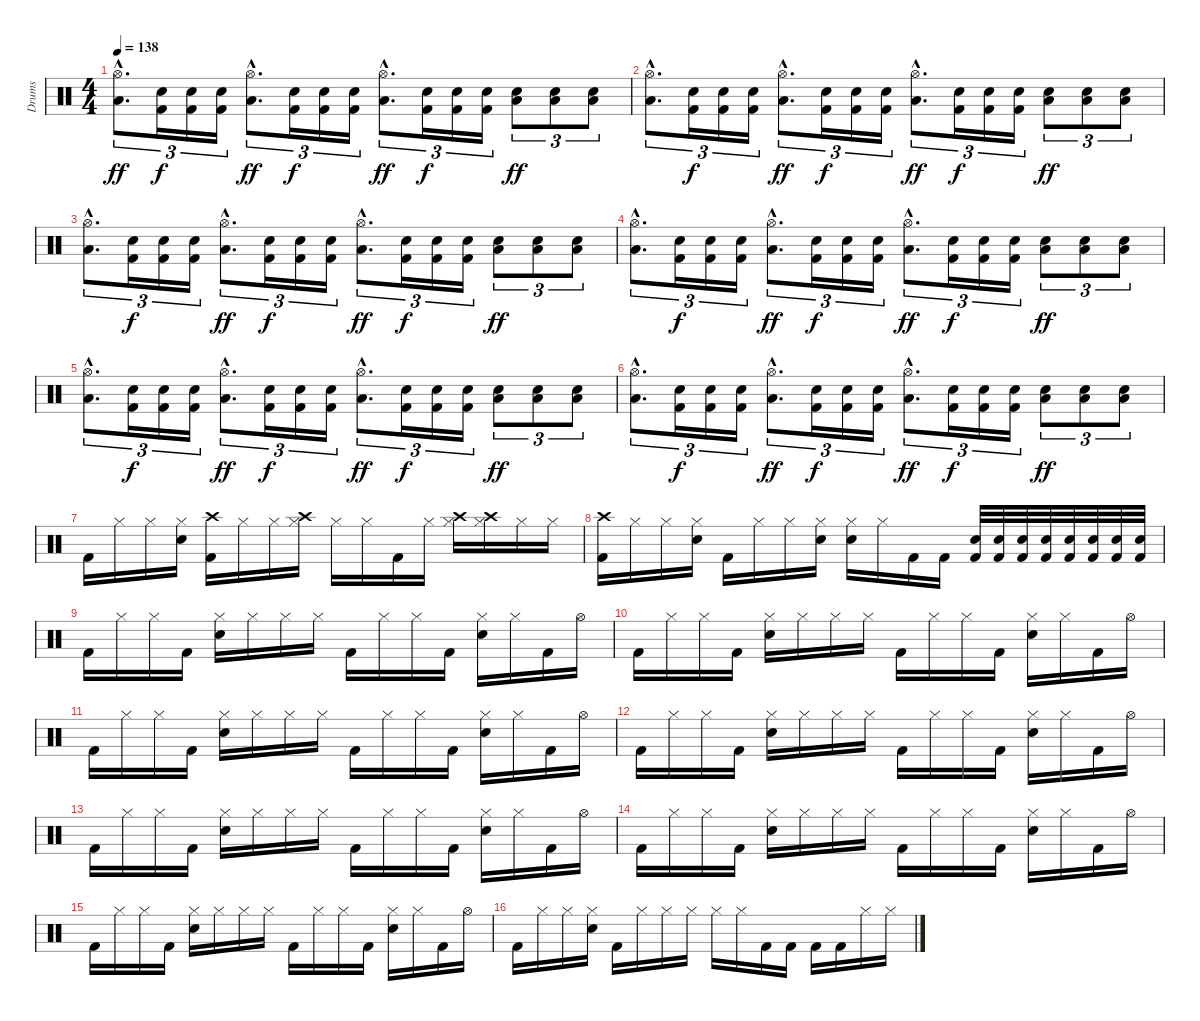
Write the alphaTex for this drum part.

\track ("Drums" "Drums") {instrument percussion}
\staff {score}
\articulation defaults
\ts (4 4)
\tempo 138
\clef neutral
\ks c
("Hi-Hat (open)"{hac} "Low Tom (hit)"{hac}).8{d tu (3 2) dy ff} ("Electric Snare (hit)" "Kick (hit) 2").16{tu (3 2) dy f} ("Electric Snare (hit)" "Kick (hit) 2").16{tu (3 2)} ("Electric Snare (hit)" "Kick (hit) 2").16{tu (3 2)} ("Hi-Hat (open)"{hac} "Low Tom (hit)"{hac}).8{d tu (3 2) dy ff} ("Electric Snare (hit)" "Kick (hit) 2").16{tu (3 2) dy f} ("Electric Snare (hit)" "Kick (hit) 2").16{tu (3 2)} ("Electric Snare (hit)" "Kick (hit) 2").16{tu (3 2)} ("Hi-Hat (open)"{hac} "Low Tom (hit)"{hac}).8{d tu (3 2) dy ff} ("Kick (hit) 2" "Electric Snare (hit)").16{tu (3 2) dy f} ("Kick (hit) 2" "Electric Snare (hit)").16{tu (3 2)} ("Kick (hit) 2" "Electric Snare (hit)").16{tu (3 2)} ("Electric Snare (hit)" "Low Tom (hit)").8{tu (3 2) dy ff} ("Electric Snare (hit)" "Low Tom (hit)").8{tu (3 2)} ("Electric Snare (hit)" "Low Tom (hit)").8{tu (3 2)} |
("Hi-Hat (open)"{hac} "Low Tom (hit)"{hac}).8{d tu (3 2)} ("Electric Snare (hit)" "Kick (hit) 2").16{tu (3 2) dy f} ("Electric Snare (hit)" "Kick (hit) 2").16{tu (3 2)} ("Electric Snare (hit)" "Kick (hit) 2").16{tu (3 2)} ("Hi-Hat (open)"{hac} "Low Tom (hit)"{hac}).8{d tu (3 2) dy ff} ("Electric Snare (hit)" "Kick (hit) 2").16{tu (3 2) dy f} ("Electric Snare (hit)" "Kick (hit) 2").16{tu (3 2)} ("Electric Snare (hit)" "Kick (hit) 2").16{tu (3 2)} ("Hi-Hat (open)"{hac} "Low Tom (hit)"{hac}).8{d tu (3 2) dy ff} ("Kick (hit) 2" "Electric Snare (hit)").16{tu (3 2) dy f} ("Kick (hit) 2" "Electric Snare (hit)").16{tu (3 2)} ("Kick (hit) 2" "Electric Snare (hit)").16{tu (3 2)} ("Electric Snare (hit)" "Low Tom (hit)").8{tu (3 2) dy ff} ("Electric Snare (hit)" "Low Tom (hit)").8{tu (3 2)} ("Electric Snare (hit)" "Low Tom (hit)").8{tu (3 2)} |
("Hi-Hat (open)"{hac} "Low Tom (hit)"{hac}).8{d tu (3 2)} ("Electric Snare (hit)" "Kick (hit) 2").16{tu (3 2) dy f} ("Electric Snare (hit)" "Kick (hit) 2").16{tu (3 2)} ("Electric Snare (hit)" "Kick (hit) 2").16{tu (3 2)} ("Hi-Hat (open)"{hac} "Low Tom (hit)"{hac}).8{d tu (3 2) dy ff} ("Electric Snare (hit)" "Kick (hit) 2").16{tu (3 2) dy f} ("Electric Snare (hit)" "Kick (hit) 2").16{tu (3 2)} ("Electric Snare (hit)" "Kick (hit) 2").16{tu (3 2)} ("Hi-Hat (open)"{hac} "Low Tom (hit)"{hac}).8{d tu (3 2) dy ff} ("Kick (hit) 2" "Electric Snare (hit)").16{tu (3 2) dy f} ("Kick (hit) 2" "Electric Snare (hit)").16{tu (3 2)} ("Kick (hit) 2" "Electric Snare (hit)").16{tu (3 2)} ("Electric Snare (hit)" "Low Tom (hit)").8{tu (3 2) dy ff} ("Electric Snare (hit)" "Low Tom (hit)").8{tu (3 2)} ("Electric Snare (hit)" "Low Tom (hit)").8{tu (3 2)} |
("Hi-Hat (open)"{hac} "Low Tom (hit)"{hac}).8{d tu (3 2)} ("Electric Snare (hit)" "Kick (hit) 2").16{tu (3 2) dy f} ("Electric Snare (hit)" "Kick (hit) 2").16{tu (3 2)} ("Electric Snare (hit)" "Kick (hit) 2").16{tu (3 2)} ("Hi-Hat (open)"{hac} "Low Tom (hit)"{hac}).8{d tu (3 2) dy ff} ("Electric Snare (hit)" "Kick (hit) 2").16{tu (3 2) dy f} ("Electric Snare (hit)" "Kick (hit) 2").16{tu (3 2)} ("Electric Snare (hit)" "Kick (hit) 2").16{tu (3 2)} ("Hi-Hat (open)"{hac} "Low Tom (hit)"{hac}).8{d tu (3 2) dy ff} ("Kick (hit) 2" "Electric Snare (hit)").16{tu (3 2) dy f} ("Kick (hit) 2" "Electric Snare (hit)").16{tu (3 2)} ("Kick (hit) 2" "Electric Snare (hit)").16{tu (3 2)} ("Electric Snare (hit)" "Low Tom (hit)").8{tu (3 2) dy ff} ("Electric Snare (hit)" "Low Tom (hit)").8{tu (3 2)} ("Electric Snare (hit)" "Low Tom (hit)").8{tu (3 2)} |
("Hi-Hat (open)"{hac} "Low Tom (hit)"{hac}).8{d tu (3 2)} ("Electric Snare (hit)" "Kick (hit) 2").16{tu (3 2) dy f} ("Electric Snare (hit)" "Kick (hit) 2").16{tu (3 2)} ("Electric Snare (hit)" "Kick (hit) 2").16{tu (3 2)} ("Hi-Hat (open)"{hac} "Low Tom (hit)"{hac}).8{d tu (3 2) dy ff} ("Electric Snare (hit)" "Kick (hit) 2").16{tu (3 2) dy f} ("Electric Snare (hit)" "Kick (hit) 2").16{tu (3 2)} ("Electric Snare (hit)" "Kick (hit) 2").16{tu (3 2)} ("Hi-Hat (open)"{hac} "Low Tom (hit)"{hac}).8{d tu (3 2) dy ff} ("Kick (hit) 2" "Electric Snare (hit)").16{tu (3 2) dy f} ("Kick (hit) 2" "Electric Snare (hit)").16{tu (3 2)} ("Kick (hit) 2" "Electric Snare (hit)").16{tu (3 2)} ("Electric Snare (hit)" "Low Tom (hit)").8{tu (3 2) dy ff} ("Electric Snare (hit)" "Low Tom (hit)").8{tu (3 2)} ("Electric Snare (hit)" "Low Tom (hit)").8{tu (3 2)} |
("Hi-Hat (open)"{hac} "Low Tom (hit)"{hac}).8{d tu (3 2)} ("Electric Snare (hit)" "Kick (hit) 2").16{tu (3 2) dy f} ("Electric Snare (hit)" "Kick (hit) 2").16{tu (3 2)} ("Electric Snare (hit)" "Kick (hit) 2").16{tu (3 2)} ("Hi-Hat (open)"{hac} "Low Tom (hit)"{hac}).8{d tu (3 2) dy ff} ("Electric Snare (hit)" "Kick (hit) 2").16{tu (3 2) dy f} ("Electric Snare (hit)" "Kick (hit) 2").16{tu (3 2)} ("Electric Snare (hit)" "Kick (hit) 2").16{tu (3 2)} ("Hi-Hat (open)"{hac} "Low Tom (hit)"{hac}).8{d tu (3 2) dy ff} ("Kick (hit) 2" "Electric Snare (hit)").16{tu (3 2) dy f} ("Kick (hit) 2" "Electric Snare (hit)").16{tu (3 2)} ("Kick (hit) 2" "Electric Snare (hit)").16{tu (3 2)} ("Electric Snare (hit)" "Low Tom (hit)").8{tu (3 2) dy ff} ("Electric Snare (hit)" "Low Tom (hit)").8{tu (3 2)} ("Electric Snare (hit)" "Low Tom (hit)").8{tu (3 2)} |
"Kick (hit) 2".16 "Hi-Hat (closed)".16 "Hi-Hat (closed)".16 ("Electric Snare (hit)" "Hi-Hat (closed)").16 ("Kick (hit) 2" "Crash high (hit)").16 "Hi-Hat (closed)".16 "Hi-Hat (closed)".16 ("Hi-Hat (closed)" "Crash high (hit)").16 "Hi-Hat (closed)".16 "Hi-Hat (closed)".16 "Kick (hit) 2".16 "Hi-Hat (closed)".16 ("Hi-Hat (closed)" "Crash high (hit)").16 ("Hi-Hat (closed)" "Crash high (hit)").16 "Hi-Hat (closed)".16 "Hi-Hat (closed)".16 |
("Kick (hit) 2" "Crash high (hit)").16 "Hi-Hat (closed)".16 "Hi-Hat (closed)".16 ("Electric Snare (hit)" "Hi-Hat (closed)").16 "Kick (hit) 2".16 "Hi-Hat (closed)".16 "Hi-Hat (closed)".16 ("Hi-Hat (closed)" "Electric Snare (hit)").16 ("Hi-Hat (closed)" "Electric Snare (hit)").16 "Hi-Hat (closed)".16 "Kick (hit) 2".16 "Kick (hit) 2".16 ("Kick (hit) 2" "Electric Snare (hit)").32 ("Kick (hit) 2" "Electric Snare (hit)").32 ("Kick (hit) 2" "Electric Snare (hit)").32 ("Kick (hit) 2" "Electric Snare (hit)").32 ("Kick (hit) 2" "Electric Snare (hit)").32 ("Kick (hit) 2" "Electric Snare (hit)").32 ("Kick (hit) 2" "Electric Snare (hit)").32 ("Kick (hit) 2" "Electric Snare (hit)").32 |
"Kick (hit) 2".16 "Hi-Hat (closed)".16 "Hi-Hat (closed)".16 "Kick (hit) 2".16 ("Electric Snare (hit)" "Hi-Hat (closed)").16 "Hi-Hat (closed)".16 "Hi-Hat (closed)".16 "Hi-Hat (closed)".16 "Kick (hit) 2".16 "Hi-Hat (closed)".16 "Hi-Hat (closed)".16 "Kick (hit) 2".16 ("Electric Snare (hit)" "Hi-Hat (closed)").16 "Hi-Hat (closed)".16 "Kick (hit) 2".16 "Hi-Hat (open)".16 |
"Kick (hit) 2".16 "Hi-Hat (closed)".16 "Hi-Hat (closed)".16 "Kick (hit) 2".16 ("Electric Snare (hit)" "Hi-Hat (closed)").16 "Hi-Hat (closed)".16 "Hi-Hat (closed)".16 "Hi-Hat (closed)".16 "Kick (hit) 2".16 "Hi-Hat (closed)".16 "Hi-Hat (closed)".16 "Kick (hit) 2".16 ("Electric Snare (hit)" "Hi-Hat (closed)").16 "Hi-Hat (closed)".16 "Kick (hit) 2".16 "Hi-Hat (open)".16 |
"Kick (hit) 2".16 "Hi-Hat (closed)".16 "Hi-Hat (closed)".16 "Kick (hit) 2".16 ("Electric Snare (hit)" "Hi-Hat (closed)").16 "Hi-Hat (closed)".16 "Hi-Hat (closed)".16 "Hi-Hat (closed)".16 "Kick (hit) 2".16 "Hi-Hat (closed)".16 "Hi-Hat (closed)".16 "Kick (hit) 2".16 ("Electric Snare (hit)" "Hi-Hat (closed)").16 "Hi-Hat (closed)".16 "Kick (hit) 2".16 "Hi-Hat (open)".16 |
"Kick (hit) 2".16 "Hi-Hat (closed)".16 "Hi-Hat (closed)".16 "Kick (hit) 2".16 ("Electric Snare (hit)" "Hi-Hat (closed)").16 "Hi-Hat (closed)".16 "Hi-Hat (closed)".16 "Hi-Hat (closed)".16 "Kick (hit) 2".16 "Hi-Hat (closed)".16 "Hi-Hat (closed)".16 "Kick (hit) 2".16 ("Electric Snare (hit)" "Hi-Hat (closed)").16 "Hi-Hat (closed)".16 "Kick (hit) 2".16 "Hi-Hat (open)".16 |
"Kick (hit) 2".16 "Hi-Hat (closed)".16 "Hi-Hat (closed)".16 "Kick (hit) 2".16 ("Electric Snare (hit)" "Hi-Hat (closed)").16 "Hi-Hat (closed)".16 "Hi-Hat (closed)".16 "Hi-Hat (closed)".16 "Kick (hit) 2".16 "Hi-Hat (closed)".16 "Hi-Hat (closed)".16 "Kick (hit) 2".16 ("Electric Snare (hit)" "Hi-Hat (closed)").16 "Hi-Hat (closed)".16 "Kick (hit) 2".16 "Hi-Hat (open)".16 |
"Kick (hit) 2".16 "Hi-Hat (closed)".16 "Hi-Hat (closed)".16 "Kick (hit) 2".16 ("Electric Snare (hit)" "Hi-Hat (closed)").16 "Hi-Hat (closed)".16 "Hi-Hat (closed)".16 "Hi-Hat (closed)".16 "Kick (hit) 2".16 "Hi-Hat (closed)".16 "Hi-Hat (closed)".16 "Kick (hit) 2".16 ("Electric Snare (hit)" "Hi-Hat (closed)").16 "Hi-Hat (closed)".16 "Kick (hit) 2".16 "Hi-Hat (open)".16 |
"Kick (hit) 2".16 "Hi-Hat (closed)".16 "Hi-Hat (closed)".16 "Kick (hit) 2".16 ("Electric Snare (hit)" "Hi-Hat (closed)").16 "Hi-Hat (closed)".16 "Hi-Hat (closed)".16 "Hi-Hat (closed)".16 "Kick (hit) 2".16 "Hi-Hat (closed)".16 "Hi-Hat (closed)".16 "Kick (hit) 2".16 ("Electric Snare (hit)" "Hi-Hat (closed)").16 "Hi-Hat (closed)".16 "Kick (hit) 2".16 "Hi-Hat (open)".16 |
"Kick (hit) 2".16 "Hi-Hat (closed)".16 "Hi-Hat (closed)".16 ("Electric Snare (hit)" "Hi-Hat (closed)").16 "Kick (hit) 2".16 "Hi-Hat (closed)".16 "Hi-Hat (closed)".16 "Hi-Hat (closed)".16 "Hi-Hat (closed)".16 "Hi-Hat (closed)".16 "Kick (hit) 2".16 "Kick (hit) 2".16 "Kick (hit) 2".16 "Kick (hit) 2".16 "Hi-Hat (closed)".16 "Hi-Hat (closed)".16
